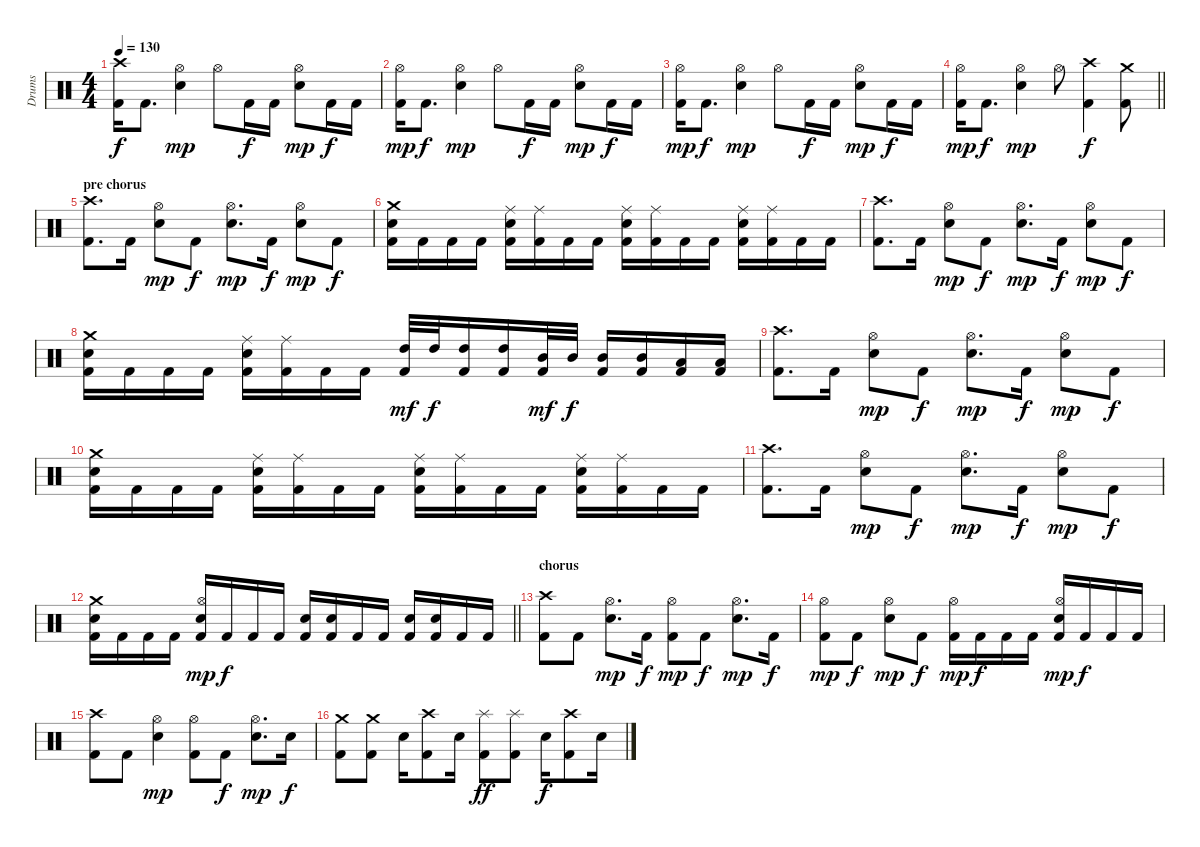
\track ("Drums" "Drums") {instrument percussion}
\staff {score}
\articulation defaults
\ts (4 4)
\tempo 130
\clef neutral
\ks c
("Crash high (hit)" "Kick (hit) 2").16{dy f} "Kick (hit) 2".8{d} ("Hi-Hat (open)" "Electric Snare (hit)").4{dy mp} "Hi-Hat (open)".8 "Kick (hit) 2".16{dy f} "Kick (hit) 2".16 ("Hi-Hat (open)" "Electric Snare (hit)").8{dy mp} "Kick (hit) 2".16{dy f} "Kick (hit) 2".16 |
("Hi-Hat (open)" "Kick (hit) 2").16{dy mp} "Kick (hit) 2".8{d dy f} ("Hi-Hat (open)" "Electric Snare (hit)").4{dy mp} "Hi-Hat (open)".8 "Kick (hit) 2".16{dy f} "Kick (hit) 2".16 ("Hi-Hat (open)" "Electric Snare (hit)").8{dy mp} "Kick (hit) 2".16{dy f} "Kick (hit) 2".16 |
("Hi-Hat (open)" "Kick (hit) 2").16{dy mp} "Kick (hit) 2".8{d dy f} ("Hi-Hat (open)" "Electric Snare (hit)").4{dy mp} "Hi-Hat (open)".8 "Kick (hit) 2".16{dy f} "Kick (hit) 2".16 ("Hi-Hat (open)" "Electric Snare (hit)").8{dy mp} "Kick (hit) 2".16{dy f} "Kick (hit) 2".16 |
\barLineRight lightlight
("Hi-Hat (open)" "Kick (hit) 2").16{dy mp} "Kick (hit) 2".8{d dy f} ("Hi-Hat (open)" "Electric Snare (hit)").4{dy mp} "Hi-Hat (open)".8 ("Crash high (hit)" "Kick (hit) 2").4{dy f} ("Crash medium (hit)" "Kick (hit) 2").8 |
\section ("" "pre chorus")
("Crash high (hit)" "Kick (hit) 2").8{d} "Kick (hit) 2".16 ("Hi-Hat (open)" "Electric Snare (hit)").8{dy mp} "Kick (hit) 2".8{dy f} ("Hi-Hat (open)" "Electric Snare (hit)").8{d dy mp} "Kick (hit) 2".16{dy f} ("Hi-Hat (open)" "Electric Snare (hit)").8{dy mp} "Kick (hit) 2".8{dy f} |
("Crash medium (hit)" "Electric Snare (hit)" "Kick (hit) 2").16 "Kick (hit) 2".16 "Kick (hit) 2".16 "Kick (hit) 2".16 ("Ride (middle)" "Electric Snare (hit)" "Kick (hit) 2").16 ("Ride (middle)" "Kick (hit) 2").16 "Kick (hit) 2".16 "Kick (hit) 2".16 ("Ride (middle)" "Electric Snare (hit)" "Kick (hit) 2").16 ("Ride (middle)" "Kick (hit) 2").16 "Kick (hit) 2".16 "Kick (hit) 2".16 ("Ride (middle)" "Electric Snare (hit)" "Kick (hit) 2").16 ("Ride (middle)" "Kick (hit) 2").16 "Kick (hit) 2".16 "Kick (hit) 2".16 |
("Crash high (hit)" "Kick (hit) 2").8{d} "Kick (hit) 2".16 ("Hi-Hat (open)" "Electric Snare (hit)").8{dy mp} "Kick (hit) 2".8{dy f} ("Hi-Hat (open)" "Electric Snare (hit)").8{d dy mp} "Kick (hit) 2".16{dy f} ("Hi-Hat (open)" "Electric Snare (hit)").8{dy mp} "Kick (hit) 2".8{dy f} |
("Crash medium (hit)" "Electric Snare (hit)" "Kick (hit) 2").16 "Kick (hit) 2".16 "Kick (hit) 2".16 "Kick (hit) 2".16 ("Ride (middle)" "Electric Snare (hit)" "Kick (hit) 2").16 ("Ride (middle)" "Kick (hit) 2").16 "Kick (hit) 2".16 "Kick (hit) 2".16 ("High Tom (hit)" "Kick (hit) 2").32{dy mf} "High Tom (hit)".32{dy f} ("High Tom (hit)" "Kick (hit) 2").16 ("High Tom (hit)" "Kick (hit) 2").16 ("Mid Tom (hit)" "Kick (hit) 2").32{dy mf} "Mid Tom (hit)".32{dy f} ("Mid Tom (hit)" "Kick (hit) 2").16 ("Mid Tom (hit)" "Kick (hit) 2").16 ("Low Tom (hit)" "Kick (hit) 2").16 ("Low Tom (hit)" "Kick (hit) 2").16 |
("Crash high (hit)" "Kick (hit) 2").8{d} "Kick (hit) 2".16 ("Hi-Hat (open)" "Electric Snare (hit)").8{dy mp} "Kick (hit) 2".8{dy f} ("Hi-Hat (open)" "Electric Snare (hit)").8{d dy mp} "Kick (hit) 2".16{dy f} ("Hi-Hat (open)" "Electric Snare (hit)").8{dy mp} "Kick (hit) 2".8{dy f} |
("Crash medium (hit)" "Electric Snare (hit)" "Kick (hit) 2").16 "Kick (hit) 2".16 "Kick (hit) 2".16 "Kick (hit) 2".16 ("Ride (middle)" "Electric Snare (hit)" "Kick (hit) 2").16 ("Ride (middle)" "Kick (hit) 2").16 "Kick (hit) 2".16 "Kick (hit) 2".16 ("Ride (middle)" "Electric Snare (hit)" "Kick (hit) 2").16 ("Ride (middle)" "Kick (hit) 2").16 "Kick (hit) 2".16 "Kick (hit) 2".16 ("Ride (middle)" "Electric Snare (hit)" "Kick (hit) 2").16 ("Ride (middle)" "Kick (hit) 2").16 "Kick (hit) 2".16 "Kick (hit) 2".16 |
("Crash high (hit)" "Kick (hit) 2").8{d} "Kick (hit) 2".16 ("Hi-Hat (open)" "Electric Snare (hit)").8{dy mp} "Kick (hit) 2".8{dy f} ("Hi-Hat (open)" "Electric Snare (hit)").8{d dy mp} "Kick (hit) 2".16{dy f} ("Hi-Hat (open)" "Electric Snare (hit)").8{dy mp} "Kick (hit) 2".8{dy f} |
\barLineRight lightlight
("Crash medium (hit)" "Electric Snare (hit)" "Kick (hit) 2").16 "Kick (hit) 2".16 "Kick (hit) 2".16 "Kick (hit) 2".16 ("Hi-Hat (open)" "Electric Snare (hit)" "Kick (hit) 2").16{dy mp} "Kick (hit) 2".16{dy f} "Kick (hit) 2".16 "Kick (hit) 2".16 ("Electric Snare (hit)" "Kick (hit) 2").16 ("Electric Snare (hit)" "Kick (hit) 2").16 "Kick (hit) 2".16 "Kick (hit) 2".16 ("Electric Snare (hit)" "Kick (hit) 2").16 ("Electric Snare (hit)" "Kick (hit) 2").16 "Kick (hit) 2".16 "Kick (hit) 2".16 |
\section ("" "chorus")
("Crash high (hit)" "Kick (hit) 2").8 "Kick (hit) 2".8 ("Hi-Hat (open)" "Electric Snare (hit)").8{d dy mp} "Kick (hit) 2".16{dy f} ("Hi-Hat (open)" "Kick (hit) 2").8{dy mp} "Kick (hit) 2".8{dy f} ("Hi-Hat (open)" "Electric Snare (hit)").8{d dy mp} "Kick (hit) 2".16{dy f} |
("Hi-Hat (open)" "Kick (hit) 2").8{dy mp} "Kick (hit) 2".8{dy f} ("Hi-Hat (open)" "Electric Snare (hit)").8{dy mp} "Kick (hit) 2".8{dy f} ("Hi-Hat (open)" "Kick (hit) 2").16{dy mp} "Kick (hit) 2".16{dy f} "Kick (hit) 2".16 "Kick (hit) 2".16 ("Hi-Hat (open)" "Electric Snare (hit)" "Kick (hit) 2").16{dy mp} "Kick (hit) 2".16{dy f} "Kick (hit) 2".16 "Kick (hit) 2".16 |
("Crash high (hit)" "Kick (hit) 2").8 "Kick (hit) 2".8 ("Hi-Hat (open)" "Electric Snare (hit)").4{dy mp} ("Hi-Hat (open)" "Kick (hit) 2").8 "Kick (hit) 2".8{dy f} ("Hi-Hat (open)" "Electric Snare (hit)").8{d dy mp} "Electric Snare (hit)".16{dy f} |
("Crash medium (hit)" "Kick (hit) 2").8 ("Crash medium (hit)" "Kick (hit) 2").8 "Electric Snare (hit)".16 ("Crash high (hit)" "Kick (hit) 2").8 "Electric Snare (hit)".16 ("Splash (hit)" "Kick (hit) 2").8{dy ff} ("Splash (hit)" "Kick (hit) 2").8 "Electric Snare (hit)".16{dy f} ("Crash high (hit)" "Kick (hit) 2").8 "Electric Snare (hit)".16
